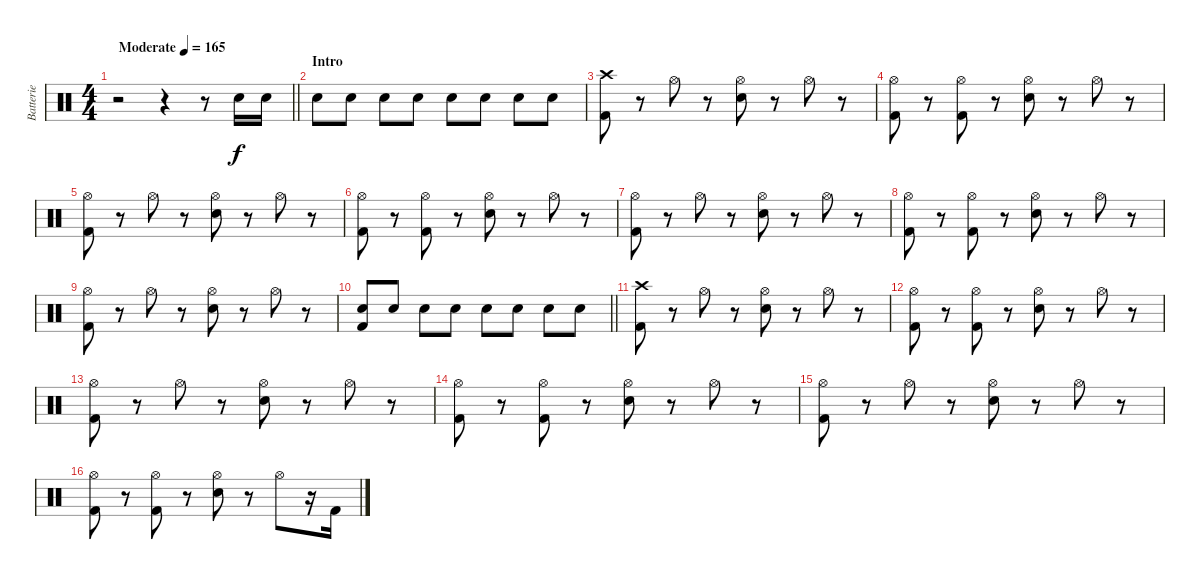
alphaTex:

\track ("Batterie" "Batterie") {instrument percussion}
\staff {score}
\articulation defaults
\ts (4 4)
\tempo (165 "Moderate")
\clef neutral
\barLineRight lightlight
\ks c
r.2{dy f} r.4 r.8 "Electric Snare (hit)".16 "Electric Snare (hit)".16 |
\section ("" "Intro")
"Electric Snare (hit)".8 "Electric Snare (hit)".8 "Electric Snare (hit)".8 "Electric Snare (hit)".8 "Electric Snare (hit)".8 "Electric Snare (hit)".8 "Electric Snare (hit)".8 "Electric Snare (hit)".8 |
("Crash high (hit)" "Kick (hit) 2").8 r.8 "Hi-Hat (open)".8 r.8 ("Hi-Hat (open)" "Electric Snare (hit)").8 r.8 "Hi-Hat (open)".8 r.8 |
("Hi-Hat (open)" "Kick (hit) 2").8 r.8 ("Hi-Hat (open)" "Kick (hit) 2").8 r.8 ("Hi-Hat (open)" "Electric Snare (hit)").8 r.8 "Hi-Hat (open)".8 r.8 |
("Hi-Hat (open)" "Kick (hit) 2").8 r.8 "Hi-Hat (open)".8 r.8 ("Hi-Hat (open)" "Electric Snare (hit)").8 r.8 "Hi-Hat (open)".8 r.8 |
("Hi-Hat (open)" "Kick (hit) 2").8 r.8 ("Hi-Hat (open)" "Kick (hit) 2").8 r.8 ("Hi-Hat (open)" "Electric Snare (hit)").8 r.8 "Hi-Hat (open)".8 r.8 |
("Hi-Hat (open)" "Kick (hit) 2").8 r.8 "Hi-Hat (open)".8 r.8 ("Hi-Hat (open)" "Electric Snare (hit)").8 r.8 "Hi-Hat (open)".8 r.8 |
("Hi-Hat (open)" "Kick (hit) 2").8 r.8 ("Hi-Hat (open)" "Kick (hit) 2").8 r.8 ("Hi-Hat (open)" "Electric Snare (hit)").8 r.8 "Hi-Hat (open)".8 r.8 |
("Hi-Hat (open)" "Kick (hit) 2").8 r.8 "Hi-Hat (open)".8 r.8 ("Hi-Hat (open)" "Electric Snare (hit)").8 r.8 "Hi-Hat (open)".8 r.8 |
\barLineRight lightlight
("Electric Snare (hit)" "Kick (hit) 2").8 "Electric Snare (hit)".8 "Electric Snare (hit)".8 "Electric Snare (hit)".8 "Electric Snare (hit)".8 "Electric Snare (hit)".8 "Electric Snare (hit)".8 "Electric Snare (hit)".8 |
("Crash high (hit)" "Kick (hit) 2").8 r.8 "Hi-Hat (open)".8 r.8 ("Hi-Hat (open)" "Electric Snare (hit)").8 r.8 "Hi-Hat (open)".8 r.8 |
("Hi-Hat (open)" "Kick (hit) 2").8 r.8 ("Hi-Hat (open)" "Kick (hit) 2").8 r.8 ("Hi-Hat (open)" "Electric Snare (hit)").8 r.8 "Hi-Hat (open)".8 r.8 |
("Hi-Hat (open)" "Kick (hit) 2").8 r.8 "Hi-Hat (open)".8 r.8 ("Hi-Hat (open)" "Electric Snare (hit)").8 r.8 "Hi-Hat (open)".8 r.8 |
("Hi-Hat (open)" "Kick (hit) 2").8 r.8 ("Hi-Hat (open)" "Kick (hit) 2").8 r.8 ("Hi-Hat (open)" "Electric Snare (hit)").8 r.8 "Hi-Hat (open)".8 r.8 |
("Hi-Hat (open)" "Kick (hit) 2").8 r.8 "Hi-Hat (open)".8 r.8 ("Hi-Hat (open)" "Electric Snare (hit)").8 r.8 "Hi-Hat (open)".8 r.8 |
("Hi-Hat (open)" "Kick (hit) 2").8 r.8 ("Hi-Hat (open)" "Kick (hit) 2").8 r.8 ("Hi-Hat (open)" "Electric Snare (hit)").8 r.8 "Hi-Hat (open)".8 r.16 "Kick (hit) 2".16
